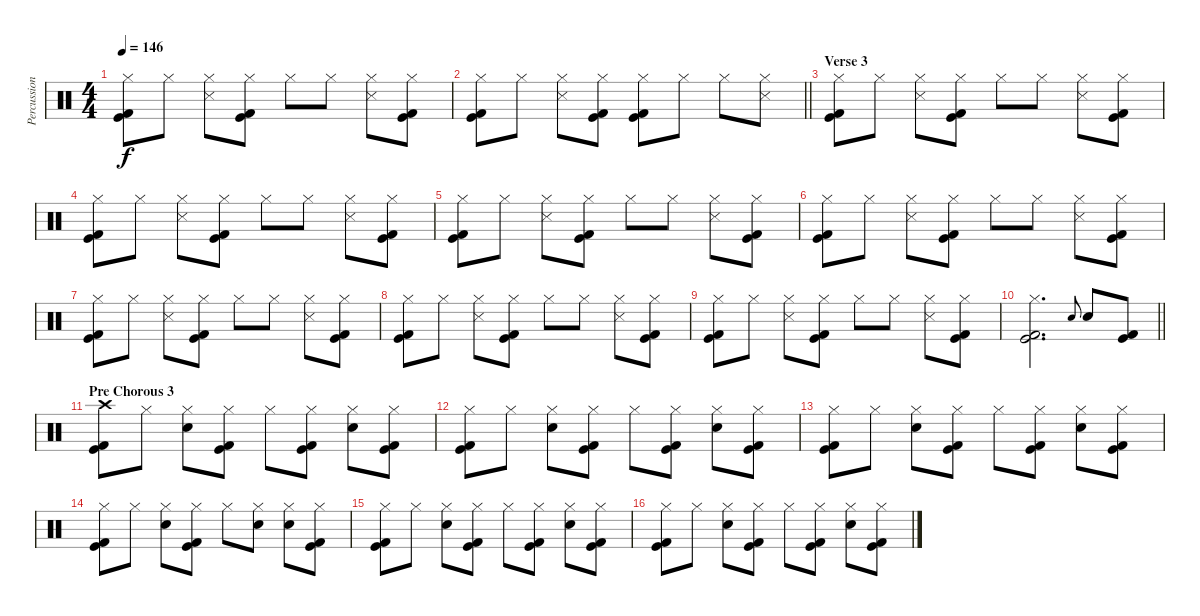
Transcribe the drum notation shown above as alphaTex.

\track ("Percussion" "Percussion") {instrument percussion}
\staff {score}
\articulation defaults
\ts (4 4)
\tempo 146
\clef neutral
\ks c
("Hi-Hat (closed)" "Kick (hit)" "Kick (hit) 2").8{dy f} "Hi-Hat (closed)".8 ("Hi-Hat (closed)" "Snare (side stick) 3").8 ("Hi-Hat (closed)" "Kick (hit)" "Kick (hit) 2").8 "Hi-Hat (closed)".8 "Hi-Hat (closed)".8 ("Hi-Hat (closed)" "Snare (side stick) 3").8 ("Hi-Hat (closed)" "Kick (hit)" "Kick (hit) 2").8 |
\barLineRight lightlight
("Hi-Hat (closed)" "Kick (hit)" "Kick (hit) 2").8 "Hi-Hat (closed)".8 ("Hi-Hat (closed)" "Snare (side stick) 3").8 ("Hi-Hat (closed)" "Kick (hit)" "Kick (hit) 2").8 ("Hi-Hat (closed)" "Kick (hit)" "Kick (hit) 2").8 "Hi-Hat (closed)".8 "Hi-Hat (closed)".8 ("Hi-Hat (closed)" "Snare (side stick) 3").8 |
\section ("" "Verse 3")
("Hi-Hat (closed)" "Kick (hit)" "Kick (hit) 2").8 "Hi-Hat (closed)".8 ("Hi-Hat (closed)" "Snare (side stick) 3").8 ("Hi-Hat (closed)" "Kick (hit)" "Kick (hit) 2").8 "Hi-Hat (closed)".8 "Hi-Hat (closed)".8 ("Hi-Hat (closed)" "Snare (side stick) 3").8 ("Hi-Hat (closed)" "Kick (hit)" "Kick (hit) 2").8 |
("Hi-Hat (closed)" "Kick (hit)" "Kick (hit) 2").8 "Hi-Hat (closed)".8 ("Hi-Hat (closed)" "Snare (side stick) 3").8 ("Hi-Hat (closed)" "Kick (hit)" "Kick (hit) 2").8 "Hi-Hat (closed)".8 "Hi-Hat (closed)".8 ("Hi-Hat (closed)" "Snare (side stick) 3").8 ("Hi-Hat (closed)" "Kick (hit)" "Kick (hit) 2").8 |
("Hi-Hat (closed)" "Kick (hit)" "Kick (hit) 2").8 "Hi-Hat (closed)".8 ("Hi-Hat (closed)" "Snare (side stick) 3").8 ("Hi-Hat (closed)" "Kick (hit)" "Kick (hit) 2").8 "Hi-Hat (closed)".8 "Hi-Hat (closed)".8 ("Hi-Hat (closed)" "Snare (side stick) 3").8 ("Hi-Hat (closed)" "Kick (hit)" "Kick (hit) 2").8 |
("Hi-Hat (closed)" "Kick (hit)" "Kick (hit) 2").8 "Hi-Hat (closed)".8 ("Hi-Hat (closed)" "Snare (side stick) 3").8 ("Hi-Hat (closed)" "Kick (hit)" "Kick (hit) 2").8 "Hi-Hat (closed)".8 "Hi-Hat (closed)".8 ("Hi-Hat (closed)" "Snare (side stick) 3").8 ("Hi-Hat (closed)" "Kick (hit)" "Kick (hit) 2").8 |
("Hi-Hat (closed)" "Kick (hit)" "Kick (hit) 2").8 "Hi-Hat (closed)".8 ("Hi-Hat (closed)" "Snare (side stick) 3").8 ("Hi-Hat (closed)" "Kick (hit)" "Kick (hit) 2").8 "Hi-Hat (closed)".8 "Hi-Hat (closed)".8 ("Hi-Hat (closed)" "Snare (side stick) 3").8 ("Hi-Hat (closed)" "Kick (hit)" "Kick (hit) 2").8 |
("Hi-Hat (closed)" "Kick (hit)" "Kick (hit) 2").8 "Hi-Hat (closed)".8 ("Hi-Hat (closed)" "Snare (side stick) 3").8 ("Hi-Hat (closed)" "Kick (hit)" "Kick (hit) 2").8 "Hi-Hat (closed)".8 "Hi-Hat (closed)".8 ("Hi-Hat (closed)" "Snare (side stick) 3").8 ("Hi-Hat (closed)" "Kick (hit)" "Kick (hit) 2").8 |
("Hi-Hat (closed)" "Kick (hit)" "Kick (hit) 2").8 "Hi-Hat (closed)".8 ("Hi-Hat (closed)" "Snare (side stick) 3").8 ("Hi-Hat (closed)" "Kick (hit)" "Kick (hit) 2").8 "Hi-Hat (closed)".8 "Hi-Hat (closed)".8 ("Hi-Hat (closed)" "Snare (side stick) 3").8 ("Hi-Hat (closed)" "Kick (hit)" "Kick (hit) 2").8 |
\barLineRight lightlight
("Hi-Hat (closed)" "Kick (hit)" "Kick (hit) 2").2{d} "Electric Snare (hit)".8{gr onbeat} "Electric Snare (hit)".8 ("Kick (hit)" "Kick (hit) 2").8 |
\section ("" "Pre Chorous 3")
("Crash high (hit)" "Kick (hit)" "Kick (hit) 2").8 "Hi-Hat (closed)".8 ("Hi-Hat (closed)" "Electric Snare (hit)").8 ("Hi-Hat (closed)" "Kick (hit)" "Kick (hit) 2").8 "Hi-Hat (closed)".8 ("Hi-Hat (closed)" "Kick (hit)" "Kick (hit) 2").8 ("Hi-Hat (closed)" "Electric Snare (hit)").8 ("Hi-Hat (closed)" "Kick (hit)" "Kick (hit) 2").8 |
("Hi-Hat (closed)" "Kick (hit)" "Kick (hit) 2").8 "Hi-Hat (closed)".8 ("Hi-Hat (closed)" "Electric Snare (hit)").8 ("Hi-Hat (closed)" "Kick (hit)" "Kick (hit) 2").8 "Hi-Hat (closed)".8 ("Hi-Hat (closed)" "Kick (hit)" "Kick (hit) 2").8 ("Hi-Hat (closed)" "Electric Snare (hit)").8 ("Hi-Hat (closed)" "Kick (hit)" "Kick (hit) 2").8 |
("Hi-Hat (closed)" "Kick (hit)" "Kick (hit) 2").8 "Hi-Hat (closed)".8 ("Hi-Hat (closed)" "Electric Snare (hit)").8 ("Hi-Hat (closed)" "Kick (hit)" "Kick (hit) 2").8 "Hi-Hat (closed)".8 ("Hi-Hat (closed)" "Kick (hit)" "Kick (hit) 2").8 ("Hi-Hat (closed)" "Electric Snare (hit)").8 ("Hi-Hat (closed)" "Kick (hit)" "Kick (hit) 2").8 |
("Hi-Hat (closed)" "Kick (hit)" "Kick (hit) 2").8 "Hi-Hat (closed)".8 ("Hi-Hat (closed)" "Electric Snare (hit)").8 ("Hi-Hat (closed)" "Kick (hit)" "Kick (hit) 2").8 "Hi-Hat (closed)".8 ("Hi-Hat (closed)" "Electric Snare (hit)").8 ("Hi-Hat (closed)" "Electric Snare (hit)").8 ("Hi-Hat (closed)" "Kick (hit)" "Kick (hit) 2").8 |
("Hi-Hat (closed)" "Kick (hit)" "Kick (hit) 2").8 "Hi-Hat (closed)".8 ("Hi-Hat (closed)" "Electric Snare (hit)").8 ("Hi-Hat (closed)" "Kick (hit)" "Kick (hit) 2").8 "Hi-Hat (closed)".8 ("Hi-Hat (closed)" "Kick (hit)" "Kick (hit) 2").8 ("Hi-Hat (closed)" "Electric Snare (hit)").8 ("Hi-Hat (closed)" "Kick (hit)" "Kick (hit) 2").8 |
("Hi-Hat (closed)" "Kick (hit)" "Kick (hit) 2").8 "Hi-Hat (closed)".8 ("Hi-Hat (closed)" "Electric Snare (hit)").8 ("Hi-Hat (closed)" "Kick (hit)" "Kick (hit) 2").8 "Hi-Hat (closed)".8 ("Hi-Hat (closed)" "Kick (hit)" "Kick (hit) 2").8 ("Hi-Hat (closed)" "Electric Snare (hit)").8 ("Hi-Hat (closed)" "Kick (hit)" "Kick (hit) 2").8
